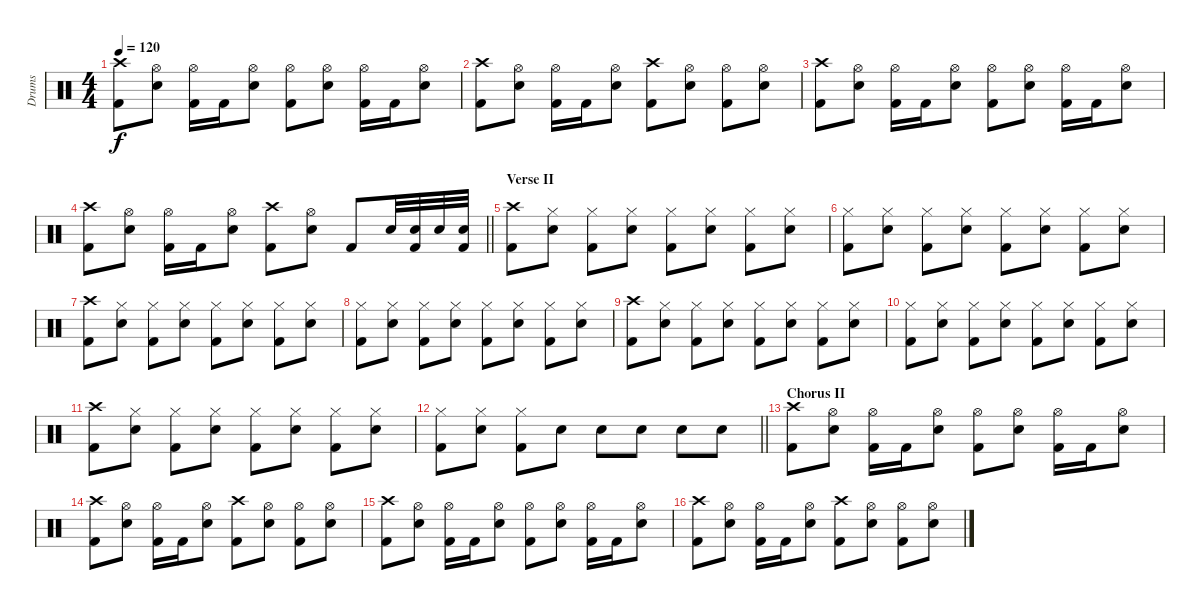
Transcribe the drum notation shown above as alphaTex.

\track ("Drums" "Drums") {instrument percussion}
\staff {score}
\articulation defaults
\ts (4 4)
\tempo 120
\clef neutral
\ks c
("Crash high (hit)" "Kick (hit) 2").8{dy f} ("Hi-Hat (open)" "Electric Snare (hit)").8 ("Hi-Hat (open)" "Kick (hit) 2").16 "Kick (hit) 2".16 ("Hi-Hat (open)" "Electric Snare (hit)").8 ("Hi-Hat (open)" "Kick (hit) 2").8 ("Hi-Hat (open)" "Electric Snare (hit)").8 ("Hi-Hat (open)" "Kick (hit) 2").16 "Kick (hit) 2".16 ("Hi-Hat (open)" "Electric Snare (hit)").8 |
("Crash high (hit)" "Kick (hit) 2").8 ("Hi-Hat (open)" "Electric Snare (hit)").8 ("Hi-Hat (open)" "Kick (hit) 2").16 "Kick (hit) 2".16 ("Hi-Hat (open)" "Electric Snare (hit)").8 ("Crash high (hit)" "Kick (hit) 2").8 ("Hi-Hat (open)" "Electric Snare (hit)").8 ("Hi-Hat (open)" "Kick (hit) 2").8 ("Hi-Hat (open)" "Electric Snare (hit)").8 |
("Crash high (hit)" "Kick (hit) 2").8 ("Hi-Hat (open)" "Electric Snare (hit)").8 ("Hi-Hat (open)" "Kick (hit) 2").16 "Kick (hit) 2".16 ("Hi-Hat (open)" "Electric Snare (hit)").8 ("Hi-Hat (open)" "Kick (hit) 2").8 ("Hi-Hat (open)" "Electric Snare (hit)").8 ("Hi-Hat (open)" "Kick (hit) 2").16 "Kick (hit) 2".16 ("Hi-Hat (open)" "Electric Snare (hit)").8 |
\barLineRight lightlight
("Crash high (hit)" "Kick (hit) 2").8 ("Hi-Hat (open)" "Electric Snare (hit)").8 ("Hi-Hat (open)" "Kick (hit) 2").16 "Kick (hit) 2".16 ("Hi-Hat (open)" "Electric Snare (hit)").8 ("Crash high (hit)" "Kick (hit) 2").8 ("Hi-Hat (open)" "Electric Snare (hit)").8 "Kick (hit) 2".8 "Electric Snare (hit)".32 ("Electric Snare (hit)" "Kick (hit) 2").32 "Electric Snare (hit)".32 ("Electric Snare (hit)" "Kick (hit) 2").32 |
\section ("" "Verse II")
("Crash high (hit)" "Kick (hit) 2").8 ("Hi-Hat (closed)" "Electric Snare (hit)").8 ("Hi-Hat (closed)" "Kick (hit) 2").8 ("Hi-Hat (closed)" "Electric Snare (hit)").8 ("Hi-Hat (closed)" "Kick (hit) 2").8 ("Hi-Hat (closed)" "Electric Snare (hit)").8 ("Hi-Hat (closed)" "Kick (hit) 2").8 ("Hi-Hat (closed)" "Electric Snare (hit)").8 |
("Hi-Hat (closed)" "Kick (hit) 2").8 ("Hi-Hat (closed)" "Electric Snare (hit)").8 ("Hi-Hat (closed)" "Kick (hit) 2").8 ("Hi-Hat (closed)" "Electric Snare (hit)").8 ("Hi-Hat (closed)" "Kick (hit) 2").8 ("Hi-Hat (closed)" "Electric Snare (hit)").8 ("Hi-Hat (closed)" "Kick (hit) 2").8 ("Hi-Hat (closed)" "Electric Snare (hit)").8 |
("Crash high (hit)" "Kick (hit) 2").8 ("Hi-Hat (closed)" "Electric Snare (hit)").8 ("Hi-Hat (closed)" "Kick (hit) 2").8 ("Hi-Hat (closed)" "Electric Snare (hit)").8 ("Hi-Hat (closed)" "Kick (hit) 2").8 ("Hi-Hat (closed)" "Electric Snare (hit)").8 ("Hi-Hat (closed)" "Kick (hit) 2").8 ("Hi-Hat (closed)" "Electric Snare (hit)").8 |
("Hi-Hat (closed)" "Kick (hit) 2").8 ("Hi-Hat (closed)" "Electric Snare (hit)").8 ("Hi-Hat (closed)" "Kick (hit) 2").8 ("Hi-Hat (closed)" "Electric Snare (hit)").8 ("Hi-Hat (closed)" "Kick (hit) 2").8 ("Hi-Hat (closed)" "Electric Snare (hit)").8 ("Hi-Hat (closed)" "Kick (hit) 2").8 ("Hi-Hat (closed)" "Electric Snare (hit)").8 |
("Crash high (hit)" "Kick (hit) 2").8 ("Hi-Hat (closed)" "Electric Snare (hit)").8 ("Hi-Hat (closed)" "Kick (hit) 2").8 ("Hi-Hat (closed)" "Electric Snare (hit)").8 ("Hi-Hat (closed)" "Kick (hit) 2").8 ("Hi-Hat (closed)" "Electric Snare (hit)").8 ("Hi-Hat (closed)" "Kick (hit) 2").8 ("Hi-Hat (closed)" "Electric Snare (hit)").8 |
("Hi-Hat (closed)" "Kick (hit) 2").8 ("Hi-Hat (closed)" "Electric Snare (hit)").8 ("Hi-Hat (closed)" "Kick (hit) 2").8 ("Hi-Hat (closed)" "Electric Snare (hit)").8 ("Hi-Hat (closed)" "Kick (hit) 2").8 ("Hi-Hat (closed)" "Electric Snare (hit)").8 ("Hi-Hat (closed)" "Kick (hit) 2").8 ("Hi-Hat (closed)" "Electric Snare (hit)").8 |
("Crash high (hit)" "Kick (hit) 2").8 ("Hi-Hat (closed)" "Electric Snare (hit)").8 ("Hi-Hat (closed)" "Kick (hit) 2").8 ("Hi-Hat (closed)" "Electric Snare (hit)").8 ("Hi-Hat (closed)" "Kick (hit) 2").8 ("Hi-Hat (closed)" "Electric Snare (hit)").8 ("Hi-Hat (closed)" "Kick (hit) 2").8 ("Hi-Hat (closed)" "Electric Snare (hit)").8 |
\barLineRight lightlight
("Hi-Hat (closed)" "Kick (hit) 2").8 ("Hi-Hat (closed)" "Electric Snare (hit)").8 ("Hi-Hat (closed)" "Kick (hit) 2").8 "Electric Snare (hit)".8 "Electric Snare (hit)".8 "Electric Snare (hit)".8 "Electric Snare (hit)".8 "Electric Snare (hit)".8 |
\section ("" "Chorus II")
("Crash high (hit)" "Kick (hit) 2").8 ("Hi-Hat (open)" "Electric Snare (hit)").8 ("Hi-Hat (open)" "Kick (hit) 2").16 "Kick (hit) 2".16 ("Hi-Hat (open)" "Electric Snare (hit)").8 ("Hi-Hat (open)" "Kick (hit) 2").8 ("Hi-Hat (open)" "Electric Snare (hit)").8 ("Hi-Hat (open)" "Kick (hit) 2").16 "Kick (hit) 2".16 ("Hi-Hat (open)" "Electric Snare (hit)").8 |
("Crash high (hit)" "Kick (hit) 2").8 ("Hi-Hat (open)" "Electric Snare (hit)").8 ("Hi-Hat (open)" "Kick (hit) 2").16 "Kick (hit) 2".16 ("Hi-Hat (open)" "Electric Snare (hit)").8 ("Crash high (hit)" "Kick (hit) 2").8 ("Hi-Hat (open)" "Electric Snare (hit)").8 ("Hi-Hat (open)" "Kick (hit) 2").8 ("Hi-Hat (open)" "Electric Snare (hit)").8 |
("Crash high (hit)" "Kick (hit) 2").8 ("Hi-Hat (open)" "Electric Snare (hit)").8 ("Hi-Hat (open)" "Kick (hit) 2").16 "Kick (hit) 2".16 ("Hi-Hat (open)" "Electric Snare (hit)").8 ("Hi-Hat (open)" "Kick (hit) 2").8 ("Hi-Hat (open)" "Electric Snare (hit)").8 ("Hi-Hat (open)" "Kick (hit) 2").16 "Kick (hit) 2".16 ("Hi-Hat (open)" "Electric Snare (hit)").8 |
("Crash high (hit)" "Kick (hit) 2").8 ("Hi-Hat (open)" "Electric Snare (hit)").8 ("Hi-Hat (open)" "Kick (hit) 2").16 "Kick (hit) 2".16 ("Hi-Hat (open)" "Electric Snare (hit)").8 ("Crash high (hit)" "Kick (hit) 2").8 ("Hi-Hat (open)" "Electric Snare (hit)").8 ("Hi-Hat (open)" "Kick (hit) 2").8 ("Hi-Hat (open)" "Electric Snare (hit)").8
